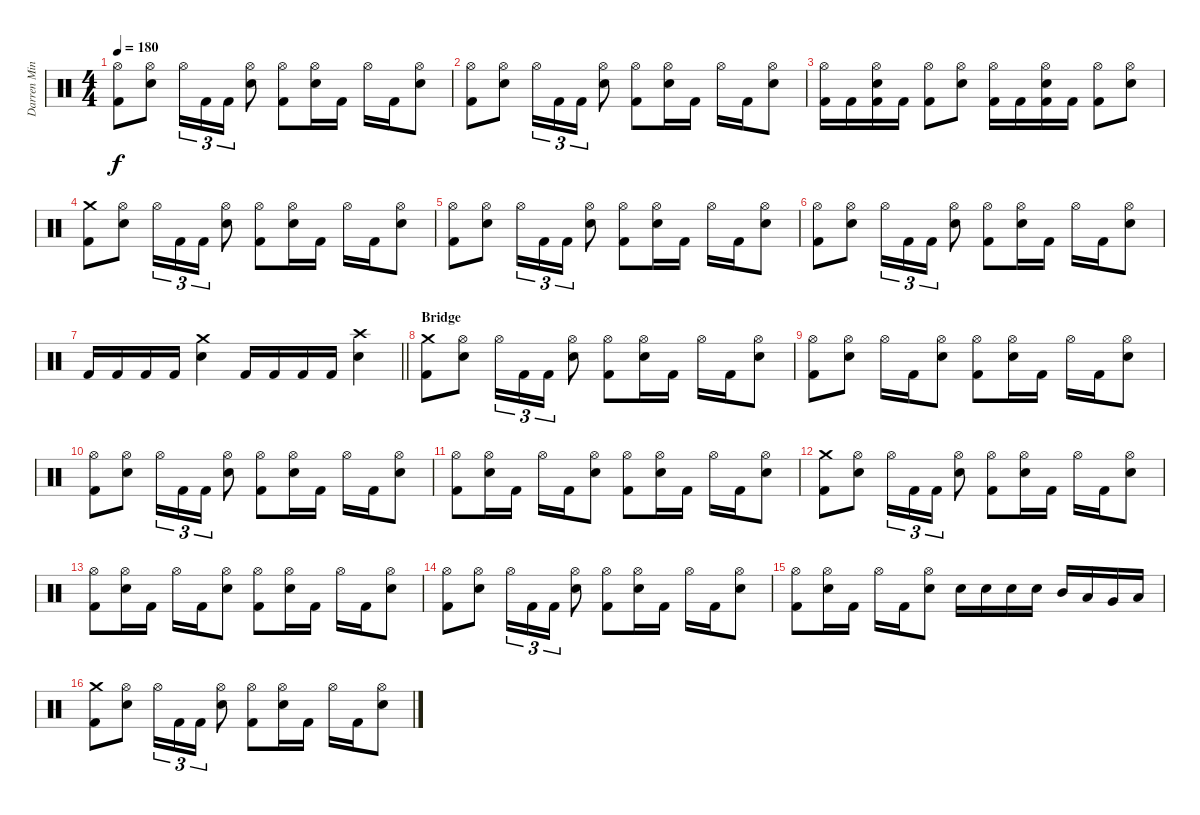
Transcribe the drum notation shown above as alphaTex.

\track ("Darren Minter" "Darren Min") {instrument percussion}
\staff {score}
\articulation defaults
\ts (4 4)
\tempo 180
\clef neutral
\ks c
("Hi-Hat (open)" "Kick (hit) 2").8{dy f} ("Hi-Hat (open)" "Electric Snare (hit)").8 "Hi-Hat (open)".16{tu (3 2)} "Kick (hit) 2".16{tu (3 2)} "Kick (hit) 2".16{tu (3 2)} ("Hi-Hat (open)" "Electric Snare (hit)").8 ("Hi-Hat (open)" "Kick (hit) 2").8 ("Hi-Hat (open)" "Electric Snare (hit)").16 "Kick (hit) 2".16 "Hi-Hat (open)".16 "Kick (hit) 2".16 ("Hi-Hat (open)" "Electric Snare (hit)").8 |
("Hi-Hat (open)" "Kick (hit) 2").8 ("Hi-Hat (open)" "Electric Snare (hit)").8 "Hi-Hat (open)".16{tu (3 2)} "Kick (hit) 2".16{tu (3 2)} "Kick (hit) 2".16{tu (3 2)} ("Hi-Hat (open)" "Electric Snare (hit)").8 ("Hi-Hat (open)" "Kick (hit) 2").8 ("Hi-Hat (open)" "Electric Snare (hit)").16 "Kick (hit) 2".16 "Hi-Hat (open)".16 "Kick (hit) 2".16 ("Hi-Hat (open)" "Electric Snare (hit)").8 |
("Hi-Hat (open)" "Kick (hit) 2").16 "Kick (hit) 2".16 ("Hi-Hat (open)" "Electric Snare (hit)" "Kick (hit) 2").16 "Kick (hit) 2".16 ("Hi-Hat (open)" "Kick (hit) 2").8 ("Hi-Hat (open)" "Electric Snare (hit)").8 ("Hi-Hat (open)" "Kick (hit) 2").16 "Kick (hit) 2".16 ("Hi-Hat (open)" "Electric Snare (hit)" "Kick (hit) 2").16 "Kick (hit) 2".16 ("Hi-Hat (open)" "Kick (hit) 2").8 ("Hi-Hat (open)" "Electric Snare (hit)").8 |
("Crash medium (hit)" "Kick (hit) 2").8 ("Hi-Hat (open)" "Electric Snare (hit)").8 "Hi-Hat (open)".16{tu (3 2)} "Kick (hit) 2".16{tu (3 2)} "Kick (hit) 2".16{tu (3 2)} ("Hi-Hat (open)" "Electric Snare (hit)").8 ("Hi-Hat (open)" "Kick (hit) 2").8 ("Hi-Hat (open)" "Electric Snare (hit)").16 "Kick (hit) 2".16 "Hi-Hat (open)".16 "Kick (hit) 2".16 ("Hi-Hat (open)" "Electric Snare (hit)").8 |
("Hi-Hat (open)" "Kick (hit) 2").8 ("Hi-Hat (open)" "Electric Snare (hit)").8 "Hi-Hat (open)".16{tu (3 2)} "Kick (hit) 2".16{tu (3 2)} "Kick (hit) 2".16{tu (3 2)} ("Hi-Hat (open)" "Electric Snare (hit)").8 ("Hi-Hat (open)" "Kick (hit) 2").8 ("Hi-Hat (open)" "Electric Snare (hit)").16 "Kick (hit) 2".16 "Hi-Hat (open)".16 "Kick (hit) 2".16 ("Hi-Hat (open)" "Electric Snare (hit)").8 |
("Hi-Hat (open)" "Kick (hit) 2").8 ("Hi-Hat (open)" "Electric Snare (hit)").8 "Hi-Hat (open)".16{tu (3 2)} "Kick (hit) 2".16{tu (3 2)} "Kick (hit) 2".16{tu (3 2)} ("Hi-Hat (open)" "Electric Snare (hit)").8 ("Hi-Hat (open)" "Kick (hit) 2").8 ("Hi-Hat (open)" "Electric Snare (hit)").16 "Kick (hit) 2".16 "Hi-Hat (open)".16 "Kick (hit) 2".16 ("Hi-Hat (open)" "Electric Snare (hit)").8 |
\barLineRight lightlight "Kick (hit) 2".16 "Kick (hit) 2".16 "Kick (hit) 2".16 "Kick (hit) 2".16
("Crash medium (hit)" "Electric Snare (hit)").4 "Kick (hit) 2".16 "Kick (hit) 2".16 "Kick (hit) 2".16 "Kick (hit) 2".16 ("Crash high (hit)" "Electric Snare (hit)").4 |
\section ("" "Bridge")
("Crash medium (hit)" "Kick (hit) 2").8 ("Hi-Hat (open)" "Electric Snare (hit)").8 "Hi-Hat (open)".16{tu (3 2)} "Kick (hit) 2".16{tu (3 2)} "Kick (hit) 2".16{tu (3 2)} ("Hi-Hat (open)" "Electric Snare (hit)").8 ("Hi-Hat (open)" "Kick (hit) 2").8 ("Hi-Hat (open)" "Electric Snare (hit)").16 "Kick (hit) 2".16 "Hi-Hat (open)".16 "Kick (hit) 2".16 ("Hi-Hat (open)" "Electric Snare (hit)").8 |
("Hi-Hat (open)" "Kick (hit) 2").8 ("Hi-Hat (open)" "Electric Snare (hit)").8 "Hi-Hat (open)".16 "Kick (hit) 2".16 ("Hi-Hat (open)" "Electric Snare (hit)").8 ("Hi-Hat (open)" "Kick (hit) 2").8 ("Hi-Hat (open)" "Electric Snare (hit)").16 "Kick (hit) 2".16 "Hi-Hat (open)".16 "Kick (hit) 2".16 ("Hi-Hat (open)" "Electric Snare (hit)").8 |
("Hi-Hat (open)" "Kick (hit) 2").8 ("Hi-Hat (open)" "Electric Snare (hit)").8 "Hi-Hat (open)".16{tu (3 2)} "Kick (hit) 2".16{tu (3 2)} "Kick (hit) 2".16{tu (3 2)} ("Hi-Hat (open)" "Electric Snare (hit)").8 ("Hi-Hat (open)" "Kick (hit) 2").8 ("Hi-Hat (open)" "Electric Snare (hit)").16 "Kick (hit) 2".16 "Hi-Hat (open)".16 "Kick (hit) 2".16 ("Hi-Hat (open)" "Electric Snare (hit)").8 |
("Hi-Hat (open)" "Kick (hit) 2").8 ("Hi-Hat (open)" "Electric Snare (hit)").16 "Kick (hit) 2".16 "Hi-Hat (open)".16 "Kick (hit) 2".16 ("Hi-Hat (open)" "Electric Snare (hit)").8 ("Hi-Hat (open)" "Kick (hit) 2").8 ("Hi-Hat (open)" "Electric Snare (hit)").16 "Kick (hit) 2".16 "Hi-Hat (open)".16 "Kick (hit) 2".16 ("Hi-Hat (open)" "Electric Snare (hit)").8 |
("Crash medium (hit)" "Kick (hit) 2").8 ("Hi-Hat (open)" "Electric Snare (hit)").8 "Hi-Hat (open)".16{tu (3 2)} "Kick (hit) 2".16{tu (3 2)} "Kick (hit) 2".16{tu (3 2)} ("Hi-Hat (open)" "Electric Snare (hit)").8 ("Hi-Hat (open)" "Kick (hit) 2").8 ("Hi-Hat (open)" "Electric Snare (hit)").16 "Kick (hit) 2".16 "Hi-Hat (open)".16 "Kick (hit) 2".16 ("Hi-Hat (open)" "Electric Snare (hit)").8 |
("Hi-Hat (open)" "Kick (hit) 2").8 ("Hi-Hat (open)" "Electric Snare (hit)").16 "Kick (hit) 2".16 "Hi-Hat (open)".16 "Kick (hit) 2".16 ("Hi-Hat (open)" "Electric Snare (hit)").8 ("Hi-Hat (open)" "Kick (hit) 2").8 ("Hi-Hat (open)" "Electric Snare (hit)").16 "Kick (hit) 2".16 "Hi-Hat (open)".16 "Kick (hit) 2".16 ("Hi-Hat (open)" "Electric Snare (hit)").8 |
("Hi-Hat (open)" "Kick (hit) 2").8 ("Hi-Hat (open)" "Electric Snare (hit)").8 "Hi-Hat (open)".16{tu (3 2)} "Kick (hit) 2".16{tu (3 2)} "Kick (hit) 2".16{tu (3 2)} ("Hi-Hat (open)" "Electric Snare (hit)").8 ("Hi-Hat (open)" "Kick (hit) 2").8 ("Hi-Hat (open)" "Electric Snare (hit)").16 "Kick (hit) 2".16 "Hi-Hat (open)".16 "Kick (hit) 2".16 ("Hi-Hat (open)" "Electric Snare (hit)").8 |
("Hi-Hat (open)" "Kick (hit) 2").8 ("Hi-Hat (open)" "Electric Snare (hit)").16 "Kick (hit) 2".16 "Hi-Hat (open)".16 "Kick (hit) 2".16 ("Hi-Hat (open)" "Electric Snare (hit)").8 "Electric Snare (hit)".16 "Electric Snare (hit)".16 "Electric Snare (hit)".16 "Electric Snare (hit)".16 "Mid Tom (hit)".16 "Low Tom (hit)".16 "Very Low Tom (hit)".16 "Low Floor Tom (hit)".16 |
("Crash medium (hit)" "Kick (hit) 2").8 ("Hi-Hat (open)" "Electric Snare (hit)").8 "Hi-Hat (open)".16{tu (3 2)} "Kick (hit) 2".16{tu (3 2)} "Kick (hit) 2".16{tu (3 2)} ("Hi-Hat (open)" "Electric Snare (hit)").8 ("Hi-Hat (open)" "Kick (hit) 2").8 ("Hi-Hat (open)" "Electric Snare (hit)").16 "Kick (hit) 2".16 "Hi-Hat (open)".16 "Kick (hit) 2".16 ("Hi-Hat (open)" "Electric Snare (hit)").8
